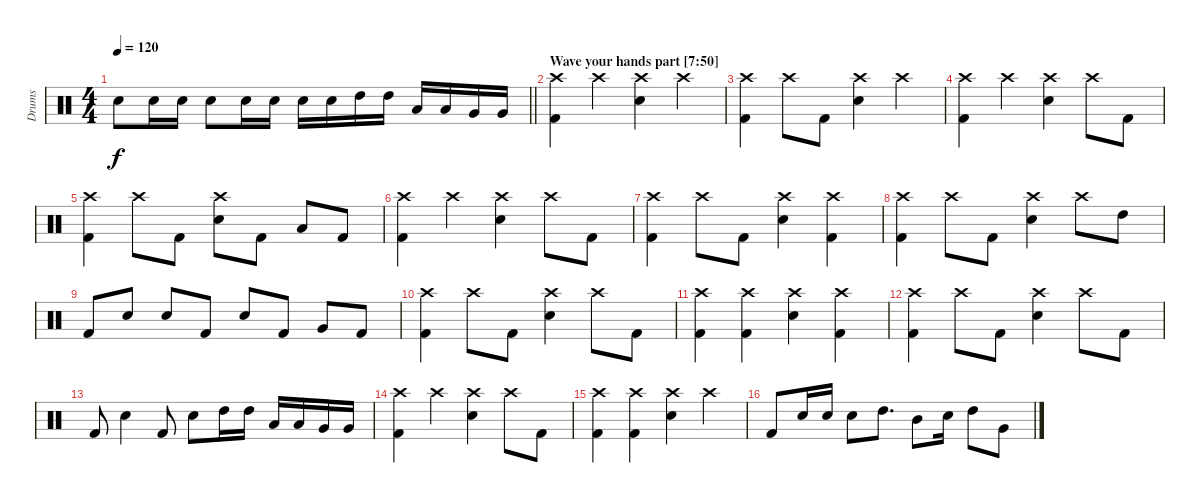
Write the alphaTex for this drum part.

\track ("Drums" "Drums") {instrument percussion}
\staff {score}
\articulation defaults
\ts (4 4)
\tempo 120
\clef neutral
\barLineRight lightlight
\ks c "Snare (hit) 2".8{dy f} "Snare (hit) 2".16 "Snare (hit) 2".16 "Snare (hit) 2".8 "Snare (hit) 2".16 "Snare (hit) 2".16 "Snare (hit) 2".16 "Snare (hit) 2".16 "High Tom (hit)".16 "High Tom (hit)".16 "Low Tom (hit)".16 "Low Tom (hit)".16 "Very Low Tom (hit)".16 "Very Low Tom (hit)".16
|
\section ("" "Wave your hands part [7:50]")
("Crash high (hit)" "Kick (hit) 2").4 "Crash high (hit)".4 ("Crash high (hit)" "Snare (hit) 2").4 "Crash high (hit)".4 |
("Crash high (hit)" "Kick (hit) 2").4 "Crash high (hit)".8 "Kick (hit) 2".8 ("Crash high (hit)" "Snare (hit) 2").4 "Crash high (hit)".4 |
("Crash high (hit)" "Kick (hit) 2").4 "Crash high (hit)".4 ("Crash high (hit)" "Snare (hit) 2").4 "Crash high (hit)".8 "Kick (hit) 2".8 |
("Crash high (hit)" "Kick (hit) 2").4 "Crash high (hit)".8 "Kick (hit) 2".8 ("Crash high (hit)" "Snare (hit) 2").8 "Kick (hit) 2".8 "Low Tom (hit)".8 "Kick (hit) 2".8 |
("Crash high (hit)" "Kick (hit) 2").4 "Crash high (hit)".4 ("Crash high (hit)" "Snare (hit) 2").4 "Crash high (hit)".8 "Kick (hit) 2".8 |
("Crash high (hit)" "Kick (hit) 2").4 "Crash high (hit)".8 "Kick (hit) 2".8 ("Crash high (hit)" "Snare (hit) 2").4 ("Crash high (hit)" "Kick (hit) 2").4 |
("Crash high (hit)" "Kick (hit) 2").4 "Crash high (hit)".8 "Kick (hit) 2".8 ("Crash high (hit)" "Snare (hit) 2").4 "Crash high (hit)".8 "High Tom (hit)".8 |
"Kick (hit) 2".8 "Snare (hit) 2".8 "Snare (hit) 2".8 "Kick (hit) 2".8 "Snare (hit) 2".8 "Kick (hit) 2".8 "Very Low Tom (hit)".8 "Kick (hit) 2".8 |
("Crash high (hit)" "Kick (hit) 2").4 "Crash high (hit)".8 "Kick (hit) 2".8 ("Crash high (hit)" "Snare (hit) 2").4 "Crash high (hit)".8 "Kick (hit) 2".8 |
("Crash high (hit)" "Kick (hit) 2").4 ("Crash high (hit)" "Kick (hit) 2").4 ("Crash high (hit)" "Snare (hit) 2").4 ("Crash high (hit)" "Kick (hit) 2").4 |
("Crash high (hit)" "Kick (hit) 2").4 "Crash high (hit)".8 "Kick (hit) 2".8 ("Crash high (hit)" "Snare (hit) 2").4 "Crash high (hit)".8 "Kick (hit) 2".8 |
"Kick (hit) 2".8 "Snare (hit) 2".4 "Kick (hit) 2".8 "Snare (hit) 2".8 "High Tom (hit)".16 "High Tom (hit)".16 "Low Tom (hit)".16 "Low Tom (hit)".16 "Very Low Tom (hit)".16 "Very Low Tom (hit)".16 |
("Crash high (hit)" "Kick (hit) 2").4 "Crash high (hit)".4 ("Crash high (hit)" "Snare (hit) 2").4 "Crash high (hit)".8 "Kick (hit) 2".8 |
("Crash high (hit)" "Kick (hit) 2").4 ("Crash high (hit)" "Kick (hit) 2").4 ("Crash high (hit)" "Snare (hit) 2").4 "Crash high (hit)".4 |
"Kick (hit) 2".8 "Snare (hit) 2".16 "Snare (hit) 2".16 "Snare (hit) 2".8 "High Tom (hit)".8{d} "Mid Tom (hit)".8 "Snare (hit) 2".16 "High Tom (hit)".8 "Very Low Tom (hit)".8
